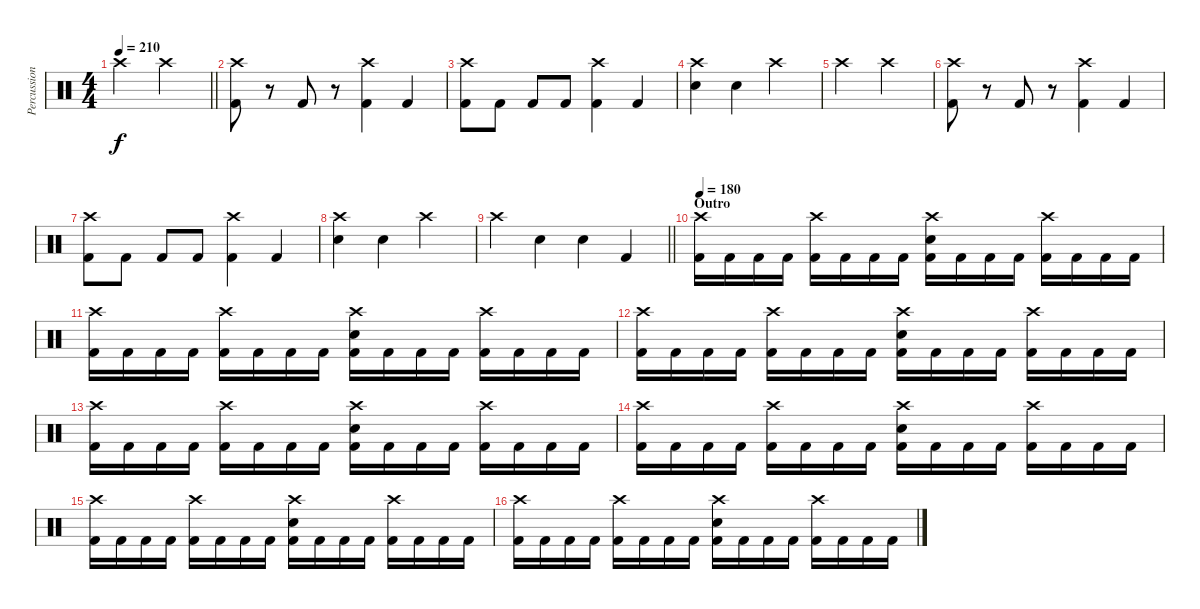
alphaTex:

\track ("Percussion" "Percussion") {instrument percussion}
\staff {score}
\articulation defaults
\ts (4 4)
\tempo 210
\clef neutral
\barLineRight lightlight
\ks c "Crash high (hit)".2{dy f} "Crash high (hit)".2
|
("Crash high (hit)" "Kick (hit) 2").8 r.8 "Kick (hit) 2".8 r.8 ("Crash high (hit)" "Kick (hit) 2").4 "Kick (hit) 2".4 |
("Crash high (hit)" "Kick (hit) 2").8 "Kick (hit) 2".8 "Kick (hit) 2".8 "Kick (hit) 2".8 ("Crash high (hit)" "Kick (hit) 2").4 "Kick (hit) 2".4 |
("Crash high (hit)" "Electric Snare (hit)").4 "Electric Snare (hit)".4 "Crash high (hit)".2 |
"Crash high (hit)".2 "Crash high (hit)".2 |
("Crash high (hit)" "Kick (hit) 2").8 r.8 "Kick (hit) 2".8 r.8 ("Crash high (hit)" "Kick (hit) 2").4 "Kick (hit) 2".4 |
("Crash high (hit)" "Kick (hit) 2").8 "Kick (hit) 2".8 "Kick (hit) 2".8 "Kick (hit) 2".8 ("Crash high (hit)" "Kick (hit) 2").4 "Kick (hit) 2".4 |
("Crash high (hit)" "Electric Snare (hit)").4 "Electric Snare (hit)".4 "Crash high (hit)".2 |
\barLineRight lightlight "Crash high (hit)".4 "Electric Snare (hit)".4 "Electric Snare (hit)".4 "Kick (hit) 2".4
|
\section ("" "Outro")
\tempo 180
("Crash high (hit)" "Kick (hit) 2").16 "Kick (hit) 2".16 "Kick (hit) 2".16 "Kick (hit) 2".16 ("Crash high (hit)" "Kick (hit) 2").16 "Kick (hit) 2".16 "Kick (hit) 2".16 "Kick (hit) 2".16 ("Crash high (hit)" "Electric Snare (hit)" "Kick (hit) 2").16 "Kick (hit) 2".16 "Kick (hit) 2".16 "Kick (hit) 2".16 ("Crash high (hit)" "Kick (hit) 2").16 "Kick (hit) 2".16 "Kick (hit) 2".16 "Kick (hit) 2".16 |
("Crash high (hit)" "Kick (hit) 2").16 "Kick (hit) 2".16 "Kick (hit) 2".16 "Kick (hit) 2".16 ("Crash high (hit)" "Kick (hit) 2").16 "Kick (hit) 2".16 "Kick (hit) 2".16 "Kick (hit) 2".16 ("Crash high (hit)" "Electric Snare (hit)" "Kick (hit) 2").16 "Kick (hit) 2".16 "Kick (hit) 2".16 "Kick (hit) 2".16 ("Crash high (hit)" "Kick (hit) 2").16 "Kick (hit) 2".16 "Kick (hit) 2".16 "Kick (hit) 2".16 |
("Crash high (hit)" "Kick (hit) 2").16 "Kick (hit) 2".16 "Kick (hit) 2".16 "Kick (hit) 2".16 ("Crash high (hit)" "Kick (hit) 2").16 "Kick (hit) 2".16 "Kick (hit) 2".16 "Kick (hit) 2".16 ("Crash high (hit)" "Electric Snare (hit)" "Kick (hit) 2").16 "Kick (hit) 2".16 "Kick (hit) 2".16 "Kick (hit) 2".16 ("Crash high (hit)" "Kick (hit) 2").16 "Kick (hit) 2".16 "Kick (hit) 2".16 "Kick (hit) 2".16 |
("Crash high (hit)" "Kick (hit) 2").16 "Kick (hit) 2".16 "Kick (hit) 2".16 "Kick (hit) 2".16 ("Crash high (hit)" "Kick (hit) 2").16 "Kick (hit) 2".16 "Kick (hit) 2".16 "Kick (hit) 2".16 ("Crash high (hit)" "Electric Snare (hit)" "Kick (hit) 2").16 "Kick (hit) 2".16 "Kick (hit) 2".16 "Kick (hit) 2".16 ("Crash high (hit)" "Kick (hit) 2").16 "Kick (hit) 2".16 "Kick (hit) 2".16 "Kick (hit) 2".16 |
("Crash high (hit)" "Kick (hit) 2").16 "Kick (hit) 2".16 "Kick (hit) 2".16 "Kick (hit) 2".16 ("Crash high (hit)" "Kick (hit) 2").16 "Kick (hit) 2".16 "Kick (hit) 2".16 "Kick (hit) 2".16 ("Crash high (hit)" "Electric Snare (hit)" "Kick (hit) 2").16 "Kick (hit) 2".16 "Kick (hit) 2".16 "Kick (hit) 2".16 ("Crash high (hit)" "Kick (hit) 2").16 "Kick (hit) 2".16 "Kick (hit) 2".16 "Kick (hit) 2".16 |
("Crash high (hit)" "Kick (hit) 2").16 "Kick (hit) 2".16 "Kick (hit) 2".16 "Kick (hit) 2".16 ("Crash high (hit)" "Kick (hit) 2").16 "Kick (hit) 2".16 "Kick (hit) 2".16 "Kick (hit) 2".16 ("Crash high (hit)" "Electric Snare (hit)" "Kick (hit) 2").16 "Kick (hit) 2".16 "Kick (hit) 2".16 "Kick (hit) 2".16 ("Crash high (hit)" "Kick (hit) 2").16 "Kick (hit) 2".16 "Kick (hit) 2".16 "Kick (hit) 2".16 |
("Crash high (hit)" "Kick (hit) 2").16 "Kick (hit) 2".16 "Kick (hit) 2".16 "Kick (hit) 2".16 ("Crash high (hit)" "Kick (hit) 2").16 "Kick (hit) 2".16 "Kick (hit) 2".16 "Kick (hit) 2".16 ("Crash high (hit)" "Electric Snare (hit)" "Kick (hit) 2").16 "Kick (hit) 2".16 "Kick (hit) 2".16 "Kick (hit) 2".16 ("Crash high (hit)" "Kick (hit) 2").16 "Kick (hit) 2".16 "Kick (hit) 2".16 "Kick (hit) 2".16
